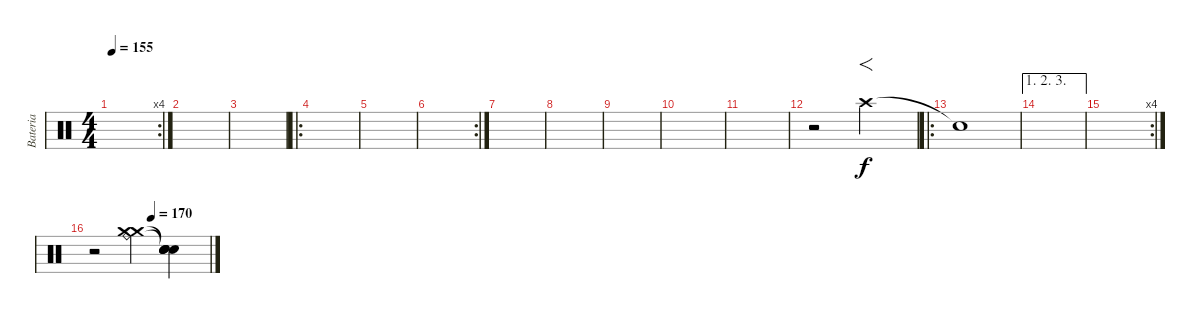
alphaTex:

\track ("Bateria" "Bateria") {instrument percussion}
\staff {score}
\articulation defaults
\rc 4
\ts (4 4)
\tempo 155
\clef neutral
\ks c
|
|
|
\ro
|
|
\rc 2
|
|
|
|
|
|
r.2 "Crash high (hit)".2{f} |
\ro "Snare (hit)"{t}.1
|
\ae (1 2 3)
|
\rc 4
|
\tempo (170 0.5)
r.2 ("Crash medium (hit)" "Ride (bell)" "Crash medium (hit)").4 ("Snare (hit)"{t} "Electric Snare (hit)"{t} "Electric Snare (hit)" "Snare (hit) 2").4
